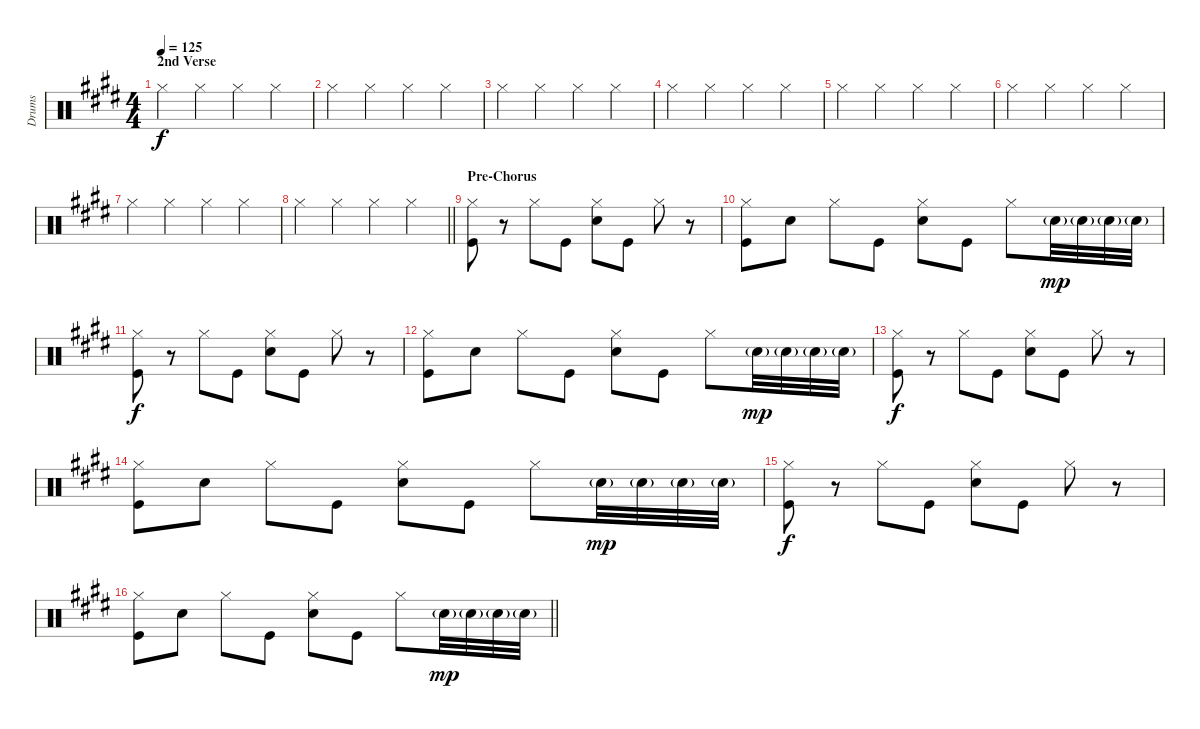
\track ("Drums" "Drums") {instrument percussion}
\staff {score}
\articulation defaults
\ts (4 4)
\section ("" "2nd Verse")
\tempo 125
\clef neutral
\ks c#minor "Hi-Hat (closed)".4{dy f} "Hi-Hat (closed)".4 "Hi-Hat (closed)".4 "Hi-Hat (closed)".4
|
"Hi-Hat (closed)".4 "Hi-Hat (closed)".4 "Hi-Hat (closed)".4 "Hi-Hat (closed)".4 |
"Hi-Hat (closed)".4 "Hi-Hat (closed)".4 "Hi-Hat (closed)".4 "Hi-Hat (closed)".4 |
"Hi-Hat (closed)".4 "Hi-Hat (closed)".4 "Hi-Hat (closed)".4 "Hi-Hat (closed)".4 |
"Hi-Hat (closed)".4 "Hi-Hat (closed)".4 "Hi-Hat (closed)".4 "Hi-Hat (closed)".4 |
"Hi-Hat (closed)".4 "Hi-Hat (closed)".4 "Hi-Hat (closed)".4 "Hi-Hat (closed)".4 |
"Hi-Hat (closed)".4 "Hi-Hat (closed)".4 "Hi-Hat (closed)".4 "Hi-Hat (closed)".4 |
\barLineRight lightlight "Hi-Hat (closed)".4 "Hi-Hat (closed)".4 "Hi-Hat (closed)".4 "Hi-Hat (closed)".4
|
\section ("" "Pre-Chorus")
("Hi-Hat (closed)" "Kick (hit)").8 r.8 "Hi-Hat (closed)".8 "Kick (hit)".8 ("Hi-Hat (closed)" "Electric Snare (hit)").8 "Kick (hit)".8 "Hi-Hat (closed)".8 r.8 |
("Hi-Hat (closed)" "Kick (hit)").8 "Electric Snare (hit)".8 "Hi-Hat (closed)".8 "Kick (hit)".8 ("Hi-Hat (closed)" "Electric Snare (hit)").8 "Kick (hit)".8 "Hi-Hat (closed)".8 "Electric Snare (hit)"{g}.32{dy mp} "Electric Snare (hit)"{g}.32 "Electric Snare (hit)"{g}.32 "Electric Snare (hit)"{g}.32 |
("Hi-Hat (closed)" "Kick (hit)").8{dy f} r.8 "Hi-Hat (closed)".8 "Kick (hit)".8 ("Hi-Hat (closed)" "Electric Snare (hit)").8 "Kick (hit)".8 "Hi-Hat (closed)".8 r.8 |
("Hi-Hat (closed)" "Kick (hit)").8 "Electric Snare (hit)".8 "Hi-Hat (closed)".8 "Kick (hit)".8 ("Hi-Hat (closed)" "Electric Snare (hit)").8 "Kick (hit)".8 "Hi-Hat (closed)".8 "Electric Snare (hit)"{g}.32{dy mp} "Electric Snare (hit)"{g}.32 "Electric Snare (hit)"{g}.32 "Electric Snare (hit)"{g}.32 |
("Hi-Hat (closed)" "Kick (hit)").8{dy f} r.8 "Hi-Hat (closed)".8 "Kick (hit)".8 ("Hi-Hat (closed)" "Electric Snare (hit)").8 "Kick (hit)".8 "Hi-Hat (closed)".8 r.8 |
("Hi-Hat (closed)" "Kick (hit)").8 "Electric Snare (hit)".8 "Hi-Hat (closed)".8 "Kick (hit)".8 ("Hi-Hat (closed)" "Electric Snare (hit)").8 "Kick (hit)".8 "Hi-Hat (closed)".8 "Electric Snare (hit)"{g}.32{dy mp} "Electric Snare (hit)"{g}.32 "Electric Snare (hit)"{g}.32 "Electric Snare (hit)"{g}.32 |
("Hi-Hat (closed)" "Kick (hit)").8{dy f} r.8 "Hi-Hat (closed)".8 "Kick (hit)".8 ("Hi-Hat (closed)" "Electric Snare (hit)").8 "Kick (hit)".8 "Hi-Hat (closed)".8 r.8 |
\barLineRight lightlight
("Hi-Hat (closed)" "Kick (hit)").8 "Electric Snare (hit)".8 "Hi-Hat (closed)".8 "Kick (hit)".8 ("Hi-Hat (closed)" "Electric Snare (hit)").8 "Kick (hit)".8 "Hi-Hat (closed)".8 "Electric Snare (hit)"{g}.32{dy mp} "Electric Snare (hit)"{g}.32 "Electric Snare (hit)"{g}.32 "Electric Snare (hit)"{g}.32
